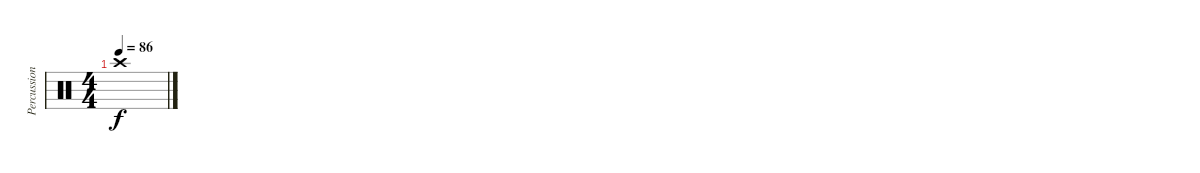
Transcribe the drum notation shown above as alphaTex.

\track ("Percussion" "Percussion") {instrument percussion}
\staff {score}
\articulation defaults
\ts (4 4)
\tempo 86
\clef neutral
\ks c "Crash high (hit)".1{dy f}
